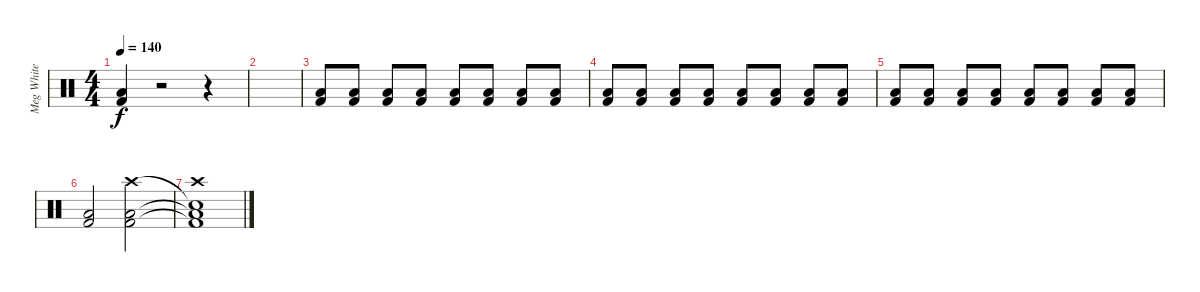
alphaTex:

\track ("Meg White" "Meg White") {instrument percussion}
\staff {score}
\articulation defaults
\ts (4 4)
\tempo 140
\clef neutral
\ks c
("Kick (hit) 2" "Low Floor Tom (hit)").4{dy f} r.2 r.4 |
|
("Kick (hit) 2" "Low Floor Tom (hit)").8 ("Kick (hit) 2" "Low Floor Tom (hit)").8 ("Kick (hit) 2" "Low Floor Tom (hit)").8 ("Kick (hit) 2" "Low Floor Tom (hit)").8 ("Kick (hit) 2" "Low Floor Tom (hit)").8 ("Kick (hit) 2" "Low Floor Tom (hit)").8 ("Kick (hit) 2" "Low Floor Tom (hit)").8 ("Kick (hit) 2" "Low Floor Tom (hit)").8 |
("Kick (hit) 2" "Low Floor Tom (hit)").8 ("Kick (hit) 2" "Low Floor Tom (hit)").8 ("Kick (hit) 2" "Low Floor Tom (hit)").8 ("Kick (hit) 2" "Low Floor Tom (hit)").8 ("Kick (hit) 2" "Low Floor Tom (hit)").8 ("Kick (hit) 2" "Low Floor Tom (hit)").8 ("Kick (hit) 2" "Low Floor Tom (hit)").8 ("Kick (hit) 2" "Low Floor Tom (hit)").8 |
("Kick (hit) 2" "Low Floor Tom (hit)").8 ("Kick (hit) 2" "Low Floor Tom (hit)").8 ("Kick (hit) 2" "Low Floor Tom (hit)").8 ("Kick (hit) 2" "Low Floor Tom (hit)").8 ("Kick (hit) 2" "Low Floor Tom (hit)").8 ("Kick (hit) 2" "Low Floor Tom (hit)").8 ("Kick (hit) 2" "Low Floor Tom (hit)").8 ("Kick (hit) 2" "Low Floor Tom (hit)").8 |
("Kick (hit) 2" "Low Floor Tom (hit)").2 ("Kick (hit) 2" "Low Floor Tom (hit)" "Crash high (hit)").2 |
("Kick (hit) 2"{t} "Low Floor Tom (hit)"{t} "Snare (hit)"{t} "Crash high (hit)").1
